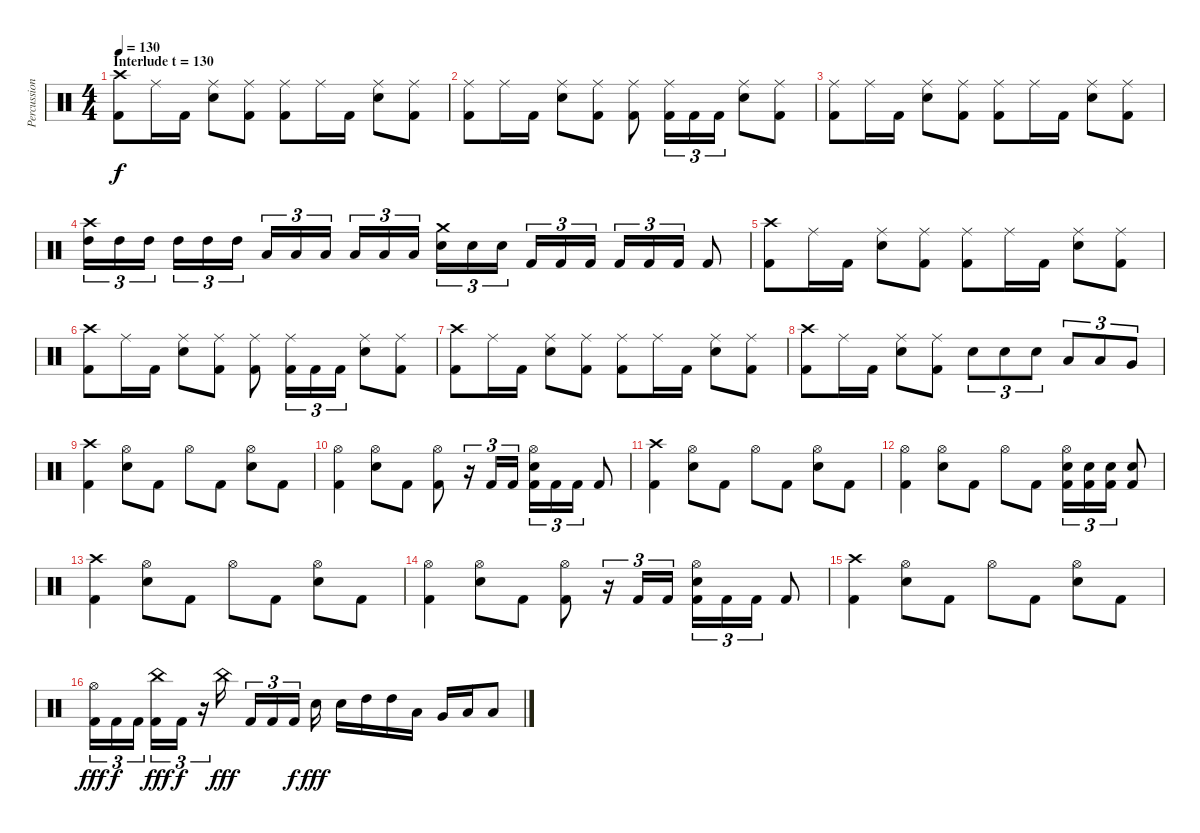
\track ("Percussion" "Percussion") {instrument percussion}
\staff {score}
\articulation defaults
\ts (4 4)
\section ("" "Interlude t = 130")
\tempo 130
\clef neutral
\ks c
("Crash high (hit)" "Kick (hit) 2").8{dy f} "Ride (middle)".16 "Kick (hit) 2".16 ("Ride (middle)" "Electric Snare (hit)").8 ("Ride (middle)" "Kick (hit) 2").8 ("Ride (middle)" "Kick (hit) 2").8 "Ride (middle)".16 "Kick (hit) 2".16 ("Ride (middle)" "Electric Snare (hit)").8 ("Ride (middle)" "Kick (hit) 2").8 |
("Ride (middle)" "Kick (hit) 2").8 "Ride (middle)".16 "Kick (hit) 2".16 ("Ride (middle)" "Electric Snare (hit)").8 ("Ride (middle)" "Kick (hit) 2").8 ("Ride (middle)" "Kick (hit) 2").8 ("Ride (middle)" "Kick (hit) 2").16{tu (3 2)} "Kick (hit) 2".16{tu (3 2)} "Kick (hit) 2".16{tu (3 2)} ("Ride (middle)" "Electric Snare (hit)").8 ("Ride (middle)" "Kick (hit) 2").8 |
("Ride (middle)" "Kick (hit) 2").8 "Ride (middle)".16 "Kick (hit) 2".16 ("Ride (middle)" "Electric Snare (hit)").8 ("Ride (middle)" "Kick (hit) 2").8 ("Ride (middle)" "Kick (hit) 2").8 "Ride (middle)".16 "Kick (hit) 2".16 ("Ride (middle)" "Electric Snare (hit)").8 ("Ride (middle)" "Kick (hit) 2").8 |
("Crash high (hit)" "High Tom (hit)").16{tu (3 2)} "High Tom (hit)".16{tu (3 2)} "High Tom (hit)".16{tu (3 2)} "High Tom (hit)".16{tu (3 2)} "High Tom (hit)".16{tu (3 2)} "High Tom (hit)".16{tu (3 2)} "Low Tom (hit)".16{tu (3 2)} "Low Tom (hit)".16{tu (3 2)} "Low Tom (hit)".16{tu (3 2)} "Low Tom (hit)".16{tu (3 2)} "Low Tom (hit)".16{tu (3 2)} "Low Tom (hit)".16{tu (3 2)} ("Crash medium (hit)" "Electric Snare (hit)").16{tu (3 2)} "Electric Snare (hit)".16{tu (3 2)} "Electric Snare (hit)".16{tu (3 2)} "Kick (hit) 2".16{tu (3 2)} "Kick (hit) 2".16{tu (3 2)} "Kick (hit) 2".16{tu (3 2)} "Kick (hit) 2".16{tu (3 2)} "Kick (hit) 2".16{tu (3 2)} "Kick (hit) 2".16{tu (3 2)} "Kick (hit) 2".8 |
("Crash high (hit)" "Kick (hit) 2").8 "Ride (middle)".16 "Kick (hit) 2".16 ("Ride (middle)" "Electric Snare (hit)").8 ("Ride (middle)" "Kick (hit) 2").8 ("Ride (middle)" "Kick (hit) 2").8 "Ride (middle)".16 "Kick (hit) 2".16 ("Ride (middle)" "Electric Snare (hit)").8 ("Ride (middle)" "Kick (hit) 2").8 |
("Crash high (hit)" "Kick (hit) 2").8 "Ride (middle)".16 "Kick (hit) 2".16 ("Ride (middle)" "Electric Snare (hit)").8 ("Ride (middle)" "Kick (hit) 2").8 ("Ride (middle)" "Kick (hit) 2").8 ("Ride (middle)" "Kick (hit) 2").16{tu (3 2)} "Kick (hit) 2".16{tu (3 2)} "Kick (hit) 2".16{tu (3 2)} ("Ride (middle)" "Electric Snare (hit)").8 ("Ride (middle)" "Kick (hit) 2").8 |
("Crash high (hit)" "Kick (hit) 2").8 "Ride (middle)".16 "Kick (hit) 2".16 ("Ride (middle)" "Electric Snare (hit)").8 ("Ride (middle)" "Kick (hit) 2").8 ("Ride (middle)" "Kick (hit) 2").8 "Ride (middle)".16 "Kick (hit) 2".16 ("Ride (middle)" "Electric Snare (hit)").8 ("Ride (middle)" "Kick (hit) 2").8 |
("Crash high (hit)" "Kick (hit) 2").8 "Ride (middle)".16 "Kick (hit) 2".16 ("Ride (middle)" "Electric Snare (hit)").8 ("Ride (middle)" "Kick (hit) 2").8 "Electric Snare (hit)".8{tu (3 2)} "Electric Snare (hit)".8{tu (3 2)} "Electric Snare (hit)".8{tu (3 2)} "Low Tom (hit)".8{tu (3 2)} "Low Tom (hit)".8{tu (3 2)} "Very Low Tom (hit)".8{tu (3 2)} |
("Crash high (hit)" "Kick (hit) 2").4 ("Hi-Hat (open)" "Electric Snare (hit)").8 "Kick (hit) 2".8 "Hi-Hat (open)".8 "Kick (hit) 2".8 ("Hi-Hat (open)" "Electric Snare (hit)").8 "Kick (hit) 2".8 |
("Hi-Hat (open)" "Kick (hit) 2").4 ("Hi-Hat (open)" "Electric Snare (hit)").8 "Kick (hit) 2".8 ("Hi-Hat (open)" "Kick (hit) 2").8 r.16{tu (3 2)} "Kick (hit) 2".16{tu (3 2)} "Kick (hit) 2".16{tu (3 2)} ("Hi-Hat (open)" "Electric Snare (hit)" "Kick (hit) 2").16{tu (3 2)} "Kick (hit) 2".16{tu (3 2)} "Kick (hit) 2".16{tu (3 2)} "Kick (hit) 2".8 |
("Crash high (hit)" "Kick (hit) 2").4 ("Hi-Hat (open)" "Electric Snare (hit)").8 "Kick (hit) 2".8 "Hi-Hat (open)".8 "Kick (hit) 2".8 ("Hi-Hat (open)" "Electric Snare (hit)").8 "Kick (hit) 2".8 |
("Hi-Hat (open)" "Kick (hit) 2").4 ("Hi-Hat (open)" "Electric Snare (hit)").8 "Kick (hit) 2".8 "Hi-Hat (open)".8 "Kick (hit) 2".8 ("Hi-Hat (open)" "Electric Snare (hit)" "Kick (hit) 2").16{tu (3 2)} ("Electric Snare (hit)" "Kick (hit) 2").16{tu (3 2)} ("Electric Snare (hit)" "Kick (hit) 2").16{tu (3 2)} ("Electric Snare (hit)" "Kick (hit) 2").8 |
("Crash high (hit)" "Kick (hit) 2").4 ("Hi-Hat (open)" "Electric Snare (hit)").8 "Kick (hit) 2".8 "Hi-Hat (open)".8 "Kick (hit) 2".8 ("Hi-Hat (open)" "Electric Snare (hit)").8 "Kick (hit) 2".8 |
("Hi-Hat (open)" "Kick (hit) 2").4 ("Hi-Hat (open)" "Electric Snare (hit)").8 "Kick (hit) 2".8 ("Hi-Hat (open)" "Kick (hit) 2").8 r.16{tu (3 2)} "Kick (hit) 2".16{tu (3 2)} "Kick (hit) 2".16{tu (3 2)} ("Hi-Hat (open)" "Electric Snare (hit)" "Kick (hit) 2").16{tu (3 2)} "Kick (hit) 2".16{tu (3 2)} "Kick (hit) 2".16{tu (3 2)} "Kick (hit) 2".8 |
("Crash high (hit)" "Kick (hit) 2").4 ("Hi-Hat (open)" "Electric Snare (hit)").8 "Kick (hit) 2".8 "Hi-Hat (open)".8 "Kick (hit) 2".8 ("Hi-Hat (open)" "Electric Snare (hit)").8 "Kick (hit) 2".8 |
("Hi-Hat (open)" "Kick (hit) 2").16{tu (3 2) dy fff} "Kick (hit) 2".16{tu (3 2) dy f} "Kick (hit) 2".16{tu (3 2)} ("China (hit)" "Kick (hit) 2").16{tu (3 2) dy fff} "Kick (hit) 2".16{tu (3 2) dy f} r.16{tu (3 2)} "China (hit)".16{dy fff} "Kick (hit) 2".16{tu (3 2)} "Kick (hit) 2".16{tu (3 2)} "Kick (hit) 2".16{tu (3 2) dy f} "Electric Snare (hit)".16{dy fff} "Electric Snare (hit)".16 "High Tom (hit)".16 "High Tom (hit)".16 "Low Tom (hit)".16 "Very Low Tom (hit)".16 "Low Floor Tom (hit)".16 "Low Floor Tom (hit)".8
